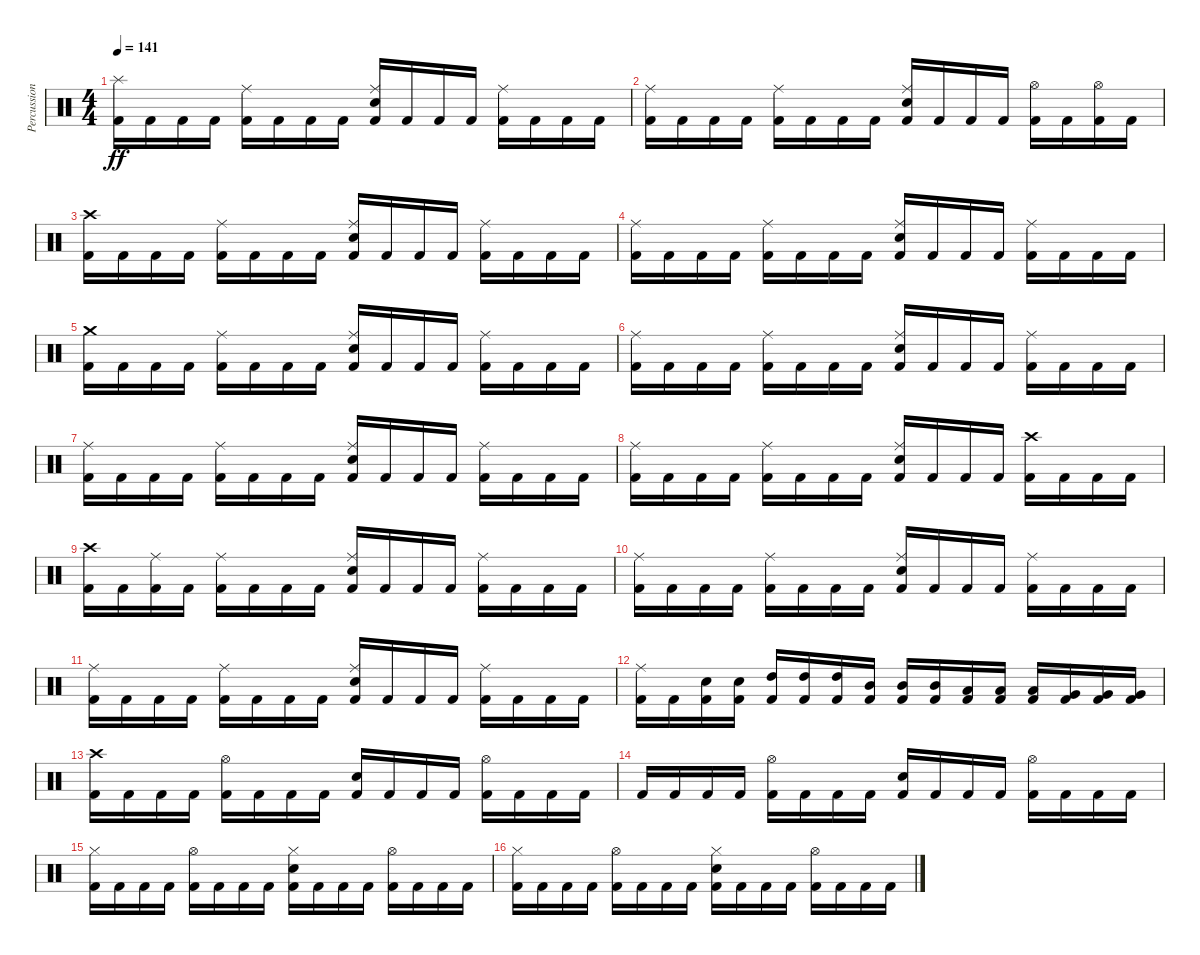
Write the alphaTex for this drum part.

\track ("Percussion" "Percussion") {instrument percussion}
\staff {score}
\articulation defaults
\ts (4 4)
\tempo 141
\clef neutral
\ks c
("Kick (hit) 2" "Splash (hit)").16{dy ff} "Kick (hit) 2".16 "Kick (hit) 2".16 "Kick (hit) 2".16 ("Kick (hit) 2" "Ride (middle)").16 "Kick (hit) 2".16 "Kick (hit) 2".16 "Kick (hit) 2".16 ("Kick (hit) 2" "Electric Snare (hit)" "Ride (middle)").16 "Kick (hit) 2".16 "Kick (hit) 2".16 "Kick (hit) 2".16 ("Kick (hit) 2" "Ride (middle)").16 "Kick (hit) 2".16 "Kick (hit) 2".16 "Kick (hit) 2".16 |
("Kick (hit) 2" "Ride (middle)").16 "Kick (hit) 2".16 "Kick (hit) 2".16 "Kick (hit) 2".16 ("Kick (hit) 2" "Ride (middle)").16 "Kick (hit) 2".16 "Kick (hit) 2".16 "Kick (hit) 2".16 ("Kick (hit) 2" "Electric Snare (hit)" "Ride (middle)").16 "Kick (hit) 2".16 "Kick (hit) 2".16 "Kick (hit) 2".16 ("Kick (hit) 2" "Hi-Hat (open)").16 "Kick (hit) 2".16 ("Kick (hit) 2" "Hi-Hat (open)").16 "Kick (hit) 2".16 |
("Kick (hit) 2" "Crash high (hit)").16 "Kick (hit) 2".16 "Kick (hit) 2".16 "Kick (hit) 2".16 ("Kick (hit) 2" "Ride (middle)").16 "Kick (hit) 2".16 "Kick (hit) 2".16 "Kick (hit) 2".16 ("Kick (hit) 2" "Electric Snare (hit)" "Ride (middle)").16 "Kick (hit) 2".16 "Kick (hit) 2".16 "Kick (hit) 2".16 ("Kick (hit) 2" "Ride (middle)").16 "Kick (hit) 2".16 "Kick (hit) 2".16 "Kick (hit) 2".16 |
("Kick (hit) 2" "Ride (middle)").16 "Kick (hit) 2".16 "Kick (hit) 2".16 "Kick (hit) 2".16 ("Kick (hit) 2" "Ride (middle)").16 "Kick (hit) 2".16 "Kick (hit) 2".16 "Kick (hit) 2".16 ("Kick (hit) 2" "Electric Snare (hit)" "Ride (middle)").16 "Kick (hit) 2".16 "Kick (hit) 2".16 "Kick (hit) 2".16 ("Kick (hit) 2" "Ride (middle)").16 "Kick (hit) 2".16 "Kick (hit) 2".16 "Kick (hit) 2".16 |
("Kick (hit) 2" "Crash medium (hit)").16 "Kick (hit) 2".16 "Kick (hit) 2".16 "Kick (hit) 2".16 ("Kick (hit) 2" "Ride (middle)").16 "Kick (hit) 2".16 "Kick (hit) 2".16 "Kick (hit) 2".16 ("Kick (hit) 2" "Electric Snare (hit)" "Ride (middle)").16 "Kick (hit) 2".16 "Kick (hit) 2".16 "Kick (hit) 2".16 ("Kick (hit) 2" "Ride (middle)").16 "Kick (hit) 2".16 "Kick (hit) 2".16 "Kick (hit) 2".16 |
("Kick (hit) 2" "Ride (middle)").16 "Kick (hit) 2".16 "Kick (hit) 2".16 "Kick (hit) 2".16 ("Kick (hit) 2" "Ride (middle)").16 "Kick (hit) 2".16 "Kick (hit) 2".16 "Kick (hit) 2".16 ("Kick (hit) 2" "Electric Snare (hit)" "Ride (middle)").16 "Kick (hit) 2".16 "Kick (hit) 2".16 "Kick (hit) 2".16 ("Kick (hit) 2" "Ride (middle)").16 "Kick (hit) 2".16 "Kick (hit) 2".16 "Kick (hit) 2".16 |
("Kick (hit) 2" "Ride (middle)").16 "Kick (hit) 2".16 "Kick (hit) 2".16 "Kick (hit) 2".16 ("Kick (hit) 2" "Ride (middle)").16 "Kick (hit) 2".16 "Kick (hit) 2".16 "Kick (hit) 2".16 ("Kick (hit) 2" "Electric Snare (hit)" "Ride (middle)").16 "Kick (hit) 2".16 "Kick (hit) 2".16 "Kick (hit) 2".16 ("Kick (hit) 2" "Ride (middle)").16 "Kick (hit) 2".16 "Kick (hit) 2".16 "Kick (hit) 2".16 |
("Kick (hit) 2" "Ride (middle)").16 "Kick (hit) 2".16 "Kick (hit) 2".16 "Kick (hit) 2".16 ("Kick (hit) 2" "Ride (middle)").16 "Kick (hit) 2".16 "Kick (hit) 2".16 "Kick (hit) 2".16 ("Kick (hit) 2" "Electric Snare (hit)" "Ride (middle)").16 "Kick (hit) 2".16 "Kick (hit) 2".16 "Kick (hit) 2".16 ("Kick (hit) 2" "Crash high (hit)").16 "Kick (hit) 2".16 "Kick (hit) 2".16 "Kick (hit) 2".16 |
("Kick (hit) 2" "Crash high (hit)").16 "Kick (hit) 2".16 ("Kick (hit) 2" "Ride (middle)").16 "Kick (hit) 2".16 ("Kick (hit) 2" "Ride (middle)").16 "Kick (hit) 2".16 "Kick (hit) 2".16 "Kick (hit) 2".16 ("Kick (hit) 2" "Electric Snare (hit)" "Ride (middle)").16 "Kick (hit) 2".16 "Kick (hit) 2".16 "Kick (hit) 2".16 ("Kick (hit) 2" "Ride (middle)").16 "Kick (hit) 2".16 "Kick (hit) 2".16 "Kick (hit) 2".16 |
("Kick (hit) 2" "Ride (middle)").16 "Kick (hit) 2".16 "Kick (hit) 2".16 "Kick (hit) 2".16 ("Kick (hit) 2" "Ride (middle)").16 "Kick (hit) 2".16 "Kick (hit) 2".16 "Kick (hit) 2".16 ("Kick (hit) 2" "Electric Snare (hit)" "Ride (middle)").16 "Kick (hit) 2".16 "Kick (hit) 2".16 "Kick (hit) 2".16 ("Kick (hit) 2" "Ride (middle)").16 "Kick (hit) 2".16 "Kick (hit) 2".16 "Kick (hit) 2".16 |
("Kick (hit) 2" "Ride (middle)").16 "Kick (hit) 2".16 "Kick (hit) 2".16 "Kick (hit) 2".16 ("Kick (hit) 2" "Ride (middle)").16 "Kick (hit) 2".16 "Kick (hit) 2".16 "Kick (hit) 2".16 ("Kick (hit) 2" "Electric Snare (hit)" "Ride (middle)").16 "Kick (hit) 2".16 "Kick (hit) 2".16 "Kick (hit) 2".16 ("Kick (hit) 2" "Ride (middle)").16 "Kick (hit) 2".16 "Kick (hit) 2".16 "Kick (hit) 2".16 |
("Kick (hit) 2" "Ride (middle)").16 "Kick (hit) 2".16 ("Kick (hit) 2" "Electric Snare (hit)").16 ("Kick (hit) 2" "Electric Snare (hit)").16 ("Kick (hit) 2" "High Tom (hit)").16 ("Kick (hit) 2" "High Tom (hit)").16 ("Kick (hit) 2" "High Tom (hit)").16 ("Kick (hit) 2" "Mid Tom (hit)").16 ("Kick (hit) 2" "Mid Tom (hit)").16 ("Kick (hit) 2" "Mid Tom (hit)").16 ("Kick (hit) 2" "Low Tom (hit)").16 ("Kick (hit) 2" "Low Tom (hit)").16 ("Kick (hit) 2" "Low Tom (hit)").16 ("Kick (hit) 2" "Very Low Tom (hit)").16 ("Kick (hit) 2" "Very Low Tom (hit)").16 ("Kick (hit) 2" "Very Low Tom (hit)").16 |
("Kick (hit) 2" "Crash high (hit)").16{volume 16} "Kick (hit) 2".16 "Kick (hit) 2".16 "Kick (hit) 2".16 ("Kick (hit) 2" "Hi-Hat (open)").16 "Kick (hit) 2".16 "Kick (hit) 2".16 "Kick (hit) 2".16 ("Kick (hit) 2" "Electric Snare (hit)").16 "Kick (hit) 2".16 "Kick (hit) 2".16 "Kick (hit) 2".16 ("Kick (hit) 2" "Hi-Hat (open)").16 "Kick (hit) 2".16 "Kick (hit) 2".16 "Kick (hit) 2".16 |
"Kick (hit) 2".16 "Kick (hit) 2".16 "Kick (hit) 2".16 "Kick (hit) 2".16 ("Kick (hit) 2" "Hi-Hat (open)").16 "Kick (hit) 2".16 "Kick (hit) 2".16 "Kick (hit) 2".16 ("Kick (hit) 2" "Electric Snare (hit)").16 "Kick (hit) 2".16 "Kick (hit) 2".16 "Kick (hit) 2".16 ("Kick (hit) 2" "Hi-Hat (open)").16 "Kick (hit) 2".16 "Kick (hit) 2".16 "Kick (hit) 2".16 |
("Kick (hit) 2" "Hi-Hat (closed)").16 "Kick (hit) 2".16 "Kick (hit) 2".16 "Kick (hit) 2".16 ("Kick (hit) 2" "Hi-Hat (open)").16 "Kick (hit) 2".16 "Kick (hit) 2".16 "Kick (hit) 2".16 ("Kick (hit) 2" "Electric Snare (hit)" "Hi-Hat (closed)").16 "Kick (hit) 2".16 "Kick (hit) 2".16 "Kick (hit) 2".16 ("Kick (hit) 2" "Hi-Hat (open)").16 "Kick (hit) 2".16 "Kick (hit) 2".16 "Kick (hit) 2".16 |
("Kick (hit) 2" "Hi-Hat (closed)").16 "Kick (hit) 2".16 "Kick (hit) 2".16 "Kick (hit) 2".16 ("Kick (hit) 2" "Hi-Hat (open)").16 "Kick (hit) 2".16 "Kick (hit) 2".16 "Kick (hit) 2".16 ("Kick (hit) 2" "Electric Snare (hit)" "Hi-Hat (closed)").16 "Kick (hit) 2".16 "Kick (hit) 2".16 "Kick (hit) 2".16 ("Kick (hit) 2" "Hi-Hat (open)").16 "Kick (hit) 2".16 "Kick (hit) 2".16 "Kick (hit) 2".16
